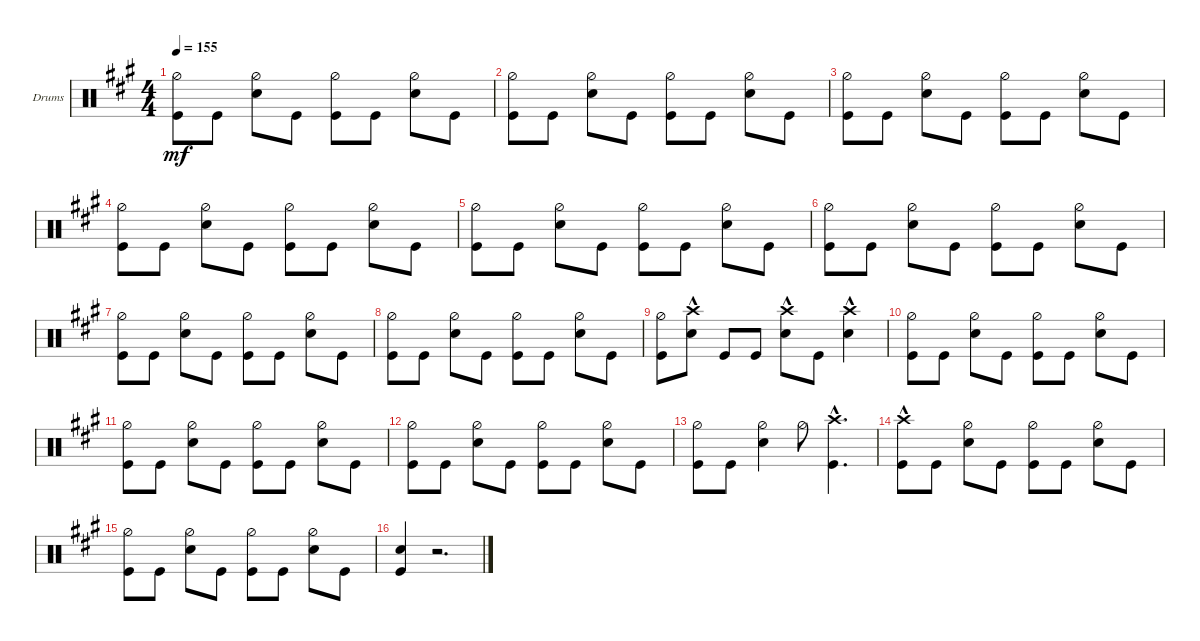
\defaultSystemsLayout 4
\bracketExtendMode groupsimilarinstruments
\firstSystemTrackNameOrientation horizontal
\otherSystemsTrackNameOrientation horizontal
\track ("John Bonham" "Drums") {instrument percussion}
\staff {score}
\articulation defaults
\ts (4 4)
\tempo 155
\clef neutral
\ks a
("Hi-Hat (half)" "Kick (hit)").8{dy mf} "Kick (hit)".8 ("Snare (hit) 2" "Hi-Hat (half)").8 "Kick (hit)".8 ("Kick (hit)" "Hi-Hat (half)").8 "Kick (hit)".8 ("Hi-Hat (half)" "Snare (hit) 2").8 "Kick (hit)".8 |
("Hi-Hat (half)" "Kick (hit)").8 "Kick (hit)".8 ("Snare (hit) 2" "Hi-Hat (half)").8 "Kick (hit)".8 ("Kick (hit)" "Hi-Hat (half)").8 "Kick (hit)".8 ("Hi-Hat (half)" "Snare (hit) 2").8 "Kick (hit)".8 |
("Hi-Hat (half)" "Kick (hit)").8 "Kick (hit)".8 ("Snare (hit) 2" "Hi-Hat (half)").8 "Kick (hit)".8 ("Kick (hit)" "Hi-Hat (half)").8 "Kick (hit)".8 ("Hi-Hat (half)" "Snare (hit) 2").8 "Kick (hit)".8 |
("Hi-Hat (half)" "Kick (hit)").8 "Kick (hit)".8 ("Snare (hit) 2" "Hi-Hat (half)").8 "Kick (hit)".8 ("Kick (hit)" "Hi-Hat (half)").8 "Kick (hit)".8 ("Hi-Hat (half)" "Snare (hit) 2").8 "Kick (hit)".8 |
("Hi-Hat (half)" "Kick (hit)").8 "Kick (hit)".8 ("Snare (hit) 2" "Hi-Hat (half)").8 "Kick (hit)".8 ("Kick (hit)" "Hi-Hat (half)").8 "Kick (hit)".8 ("Hi-Hat (half)" "Snare (hit) 2").8 "Kick (hit)".8 |
("Hi-Hat (half)" "Kick (hit)").8 "Kick (hit)".8 ("Snare (hit) 2" "Hi-Hat (half)").8 "Kick (hit)".8 ("Kick (hit)" "Hi-Hat (half)").8 "Kick (hit)".8 ("Hi-Hat (half)" "Snare (hit) 2").8 "Kick (hit)".8 |
("Hi-Hat (half)" "Kick (hit)").8 "Kick (hit)".8 ("Snare (hit) 2" "Hi-Hat (half)").8 "Kick (hit)".8 ("Kick (hit)" "Hi-Hat (half)").8 "Kick (hit)".8 ("Hi-Hat (half)" "Snare (hit) 2").8 "Kick (hit)".8 |
("Hi-Hat (half)" "Kick (hit)").8 "Kick (hit)".8 ("Snare (hit) 2" "Hi-Hat (half)").8 "Kick (hit)".8 ("Kick (hit)" "Hi-Hat (half)").8 "Kick (hit)".8 ("Hi-Hat (half)" "Snare (hit) 2").8 "Kick (hit)".8 |
("Hi-Hat (half)" "Kick (hit)").8 ("Snare (hit) 2"{hac} "Crash high (hit)"{hac}).8 "Kick (hit)".8 "Kick (hit)".8 ("Snare (hit) 2"{hac} "Crash high (hit)"{hac}).8 "Kick (hit)".8 ("Snare (hit) 2"{hac} "Crash high (hit)"{hac}).4 |
("Hi-Hat (half)" "Kick (hit)").8 "Kick (hit)".8 ("Snare (hit) 2" "Hi-Hat (half)").8 "Kick (hit)".8 ("Kick (hit)" "Hi-Hat (half)").8 "Kick (hit)".8 ("Hi-Hat (half)" "Snare (hit) 2").8 "Kick (hit)".8 |
("Hi-Hat (half)" "Kick (hit)").8 "Kick (hit)".8 ("Snare (hit) 2" "Hi-Hat (half)").8 "Kick (hit)".8 ("Kick (hit)" "Hi-Hat (half)").8 "Kick (hit)".8 ("Hi-Hat (half)" "Snare (hit) 2").8 "Kick (hit)".8 |
("Hi-Hat (half)" "Kick (hit)").8 "Kick (hit)".8 ("Snare (hit) 2" "Hi-Hat (half)").8 "Kick (hit)".8 ("Kick (hit)" "Hi-Hat (half)").8 "Kick (hit)".8 ("Hi-Hat (half)" "Snare (hit) 2").8 "Kick (hit)".8 |
("Hi-Hat (half)" "Kick (hit)").8 "Kick (hit)".8 ("Snare (hit) 2" "Hi-Hat (half)").4 "Hi-Hat (half)".8 ("Crash high (hit)"{hac} "Kick (hit)").4{d} |
("Kick (hit)" "Crash high (hit)"{hac}).8 "Kick (hit)".8 ("Snare (hit) 2" "Hi-Hat (half)").8 "Kick (hit)".8 ("Kick (hit)" "Hi-Hat (half)").8 "Kick (hit)".8 ("Hi-Hat (half)" "Snare (hit) 2").8 "Kick (hit)".8 |
("Hi-Hat (half)" "Kick (hit)").8 "Kick (hit)".8 ("Snare (hit) 2" "Hi-Hat (half)").8 "Kick (hit)".8 ("Kick (hit)" "Hi-Hat (half)").8 "Kick (hit)".8 ("Hi-Hat (half)" "Snare (hit) 2").8 "Kick (hit)".8 |
("Snare (hit) 2" "Kick (hit)").4 r.2{d}
